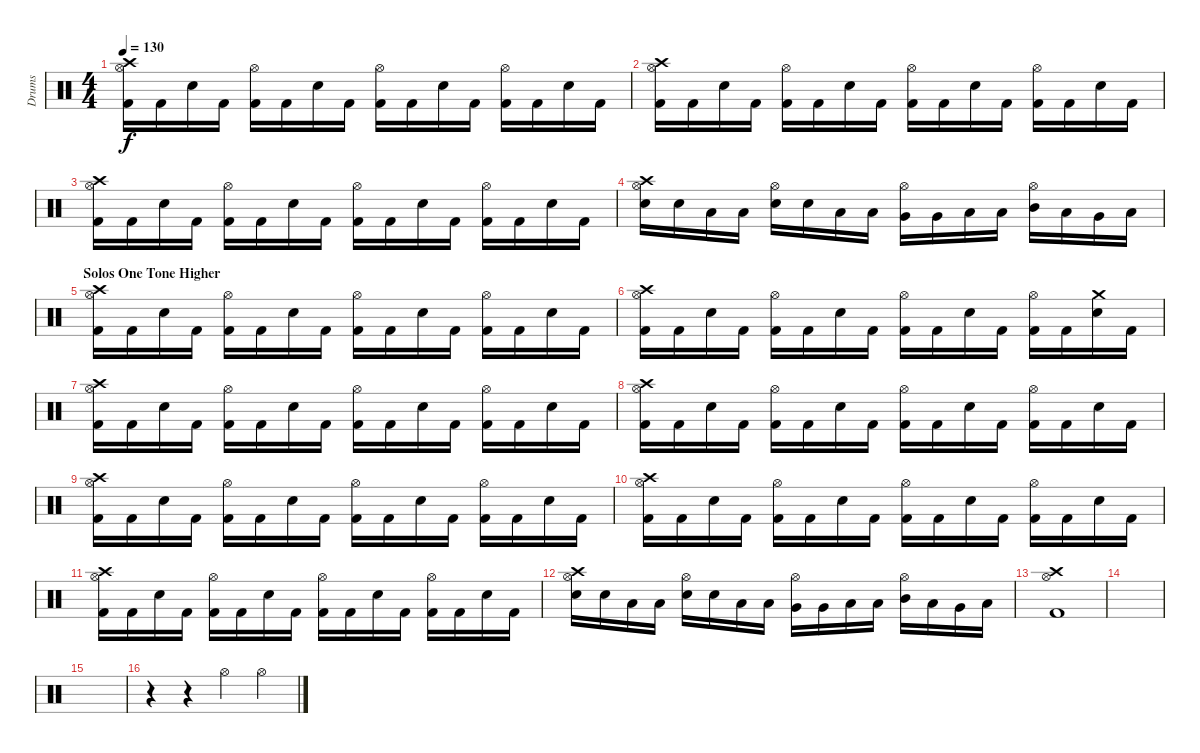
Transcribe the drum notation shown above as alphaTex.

\track ("Drums" "Drums") {instrument percussion}
\staff {score}
\articulation defaults
\ts (4 4)
\tempo 130
\clef neutral
\ks c
("Crash high (hit)" "Hi-Hat (open)" "Kick (hit) 2").16{dy f} "Kick (hit) 2".16 "Electric Snare (hit)".16 "Kick (hit) 2".16 ("Hi-Hat (open)" "Kick (hit) 2").16 "Kick (hit) 2".16 "Electric Snare (hit)".16 "Kick (hit) 2".16 ("Hi-Hat (open)" "Kick (hit) 2").16 "Kick (hit) 2".16 "Electric Snare (hit)".16 "Kick (hit) 2".16 ("Hi-Hat (open)" "Kick (hit) 2").16 "Kick (hit) 2".16 "Electric Snare (hit)".16 "Kick (hit) 2".16 |
("Crash high (hit)" "Hi-Hat (open)" "Kick (hit) 2").16 "Kick (hit) 2".16 "Electric Snare (hit)".16 "Kick (hit) 2".16 ("Hi-Hat (open)" "Kick (hit) 2").16 "Kick (hit) 2".16 "Electric Snare (hit)".16 "Kick (hit) 2".16 ("Hi-Hat (open)" "Kick (hit) 2").16 "Kick (hit) 2".16 "Electric Snare (hit)".16 "Kick (hit) 2".16 ("Hi-Hat (open)" "Kick (hit) 2").16 "Kick (hit) 2".16 "Electric Snare (hit)".16 "Kick (hit) 2".16 |
("Crash high (hit)" "Hi-Hat (open)" "Kick (hit) 2").16 "Kick (hit) 2".16 "Electric Snare (hit)".16 "Kick (hit) 2".16 ("Hi-Hat (open)" "Kick (hit) 2").16 "Kick (hit) 2".16 "Electric Snare (hit)".16 "Kick (hit) 2".16 ("Hi-Hat (open)" "Kick (hit) 2").16 "Kick (hit) 2".16 "Electric Snare (hit)".16 "Kick (hit) 2".16 ("Hi-Hat (open)" "Kick (hit) 2").16 "Kick (hit) 2".16 "Electric Snare (hit)".16 "Kick (hit) 2".16 |
("Crash high (hit)" "Hi-Hat (open)" "Electric Snare (hit)").16 "Electric Snare (hit)".16 "Low Tom (hit)".16 "Low Tom (hit)".16 ("Hi-Hat (open)" "Electric Snare (hit)").16 "Electric Snare (hit)".16 "Low Tom (hit)".16 "Low Tom (hit)".16 ("Hi-Hat (open)" "Very Low Tom (hit)").16 "Very Low Tom (hit)".16 "Low Floor Tom (hit)".16 "Low Floor Tom (hit)".16 ("Hi-Hat (open)" "Mid Tom (hit)").16 "Low Tom (hit)".16 "Very Low Tom (hit)".16 "Low Floor Tom (hit)".16 |
\section ("" "Solos One Tone Higher")
("Crash high (hit)" "Hi-Hat (open)" "Kick (hit) 2").16 "Kick (hit) 2".16 "Electric Snare (hit)".16 "Kick (hit) 2".16 ("Hi-Hat (open)" "Kick (hit) 2").16 "Kick (hit) 2".16 "Electric Snare (hit)".16 "Kick (hit) 2".16 ("Hi-Hat (open)" "Kick (hit) 2").16 "Kick (hit) 2".16 "Electric Snare (hit)".16 "Kick (hit) 2".16 ("Hi-Hat (open)" "Kick (hit) 2").16 "Kick (hit) 2".16 "Electric Snare (hit)".16 "Kick (hit) 2".16 |
("Crash high (hit)" "Hi-Hat (open)" "Kick (hit) 2").16 "Kick (hit) 2".16 "Electric Snare (hit)".16 "Kick (hit) 2".16 ("Hi-Hat (open)" "Kick (hit) 2").16 "Kick (hit) 2".16 "Electric Snare (hit)".16 "Kick (hit) 2".16 ("Hi-Hat (open)" "Kick (hit) 2").16 "Kick (hit) 2".16 "Electric Snare (hit)".16 "Kick (hit) 2".16 ("Hi-Hat (open)" "Kick (hit) 2").16 "Kick (hit) 2".16 ("Crash medium (hit)" "Electric Snare (hit)").16 "Kick (hit) 2".16 |
("Crash high (hit)" "Hi-Hat (open)" "Kick (hit) 2").16 "Kick (hit) 2".16 "Electric Snare (hit)".16 "Kick (hit) 2".16 ("Hi-Hat (open)" "Kick (hit) 2").16 "Kick (hit) 2".16 "Electric Snare (hit)".16 "Kick (hit) 2".16 ("Hi-Hat (open)" "Kick (hit) 2").16 "Kick (hit) 2".16 "Electric Snare (hit)".16 "Kick (hit) 2".16 ("Hi-Hat (open)" "Kick (hit) 2").16 "Kick (hit) 2".16 "Electric Snare (hit)".16 "Kick (hit) 2".16 |
("Crash high (hit)" "Hi-Hat (open)" "Kick (hit) 2").16 "Kick (hit) 2".16 "Electric Snare (hit)".16 "Kick (hit) 2".16 ("Hi-Hat (open)" "Kick (hit) 2").16 "Kick (hit) 2".16 "Electric Snare (hit)".16 "Kick (hit) 2".16 ("Hi-Hat (open)" "Kick (hit) 2").16 "Kick (hit) 2".16 "Electric Snare (hit)".16 "Kick (hit) 2".16 ("Hi-Hat (open)" "Kick (hit) 2").16 "Kick (hit) 2".16 "Electric Snare (hit)".16 "Kick (hit) 2".16 |
("Crash high (hit)" "Hi-Hat (open)" "Kick (hit) 2").16 "Kick (hit) 2".16 "Electric Snare (hit)".16 "Kick (hit) 2".16 ("Hi-Hat (open)" "Kick (hit) 2").16 "Kick (hit) 2".16 "Electric Snare (hit)".16 "Kick (hit) 2".16 ("Hi-Hat (open)" "Kick (hit) 2").16 "Kick (hit) 2".16 "Electric Snare (hit)".16 "Kick (hit) 2".16 ("Hi-Hat (open)" "Kick (hit) 2").16 "Kick (hit) 2".16 "Electric Snare (hit)".16 "Kick (hit) 2".16 |
("Crash high (hit)" "Hi-Hat (open)" "Kick (hit) 2").16 "Kick (hit) 2".16 "Electric Snare (hit)".16 "Kick (hit) 2".16 ("Hi-Hat (open)" "Kick (hit) 2").16 "Kick (hit) 2".16 "Electric Snare (hit)".16 "Kick (hit) 2".16 ("Hi-Hat (open)" "Kick (hit) 2").16 "Kick (hit) 2".16 "Electric Snare (hit)".16 "Kick (hit) 2".16 ("Hi-Hat (open)" "Kick (hit) 2").16 "Kick (hit) 2".16 "Electric Snare (hit)".16 "Kick (hit) 2".16 |
("Crash high (hit)" "Hi-Hat (open)" "Kick (hit) 2").16 "Kick (hit) 2".16 "Electric Snare (hit)".16 "Kick (hit) 2".16 ("Hi-Hat (open)" "Kick (hit) 2").16 "Kick (hit) 2".16 "Electric Snare (hit)".16 "Kick (hit) 2".16 ("Hi-Hat (open)" "Kick (hit) 2").16 "Kick (hit) 2".16 "Electric Snare (hit)".16 "Kick (hit) 2".16 ("Hi-Hat (open)" "Kick (hit) 2").16 "Kick (hit) 2".16 "Electric Snare (hit)".16 "Kick (hit) 2".16 |
("Crash high (hit)" "Hi-Hat (open)" "Electric Snare (hit)").16 "Electric Snare (hit)".16 "Low Tom (hit)".16 "Low Tom (hit)".16 ("Hi-Hat (open)" "Electric Snare (hit)").16 "Electric Snare (hit)".16 "Low Tom (hit)".16 "Low Tom (hit)".16 ("Hi-Hat (open)" "Very Low Tom (hit)").16 "Very Low Tom (hit)".16 "Low Floor Tom (hit)".16 "Low Floor Tom (hit)".16 ("Hi-Hat (open)" "Mid Tom (hit)").16 "Low Tom (hit)".16 "Very Low Tom (hit)".16 "Low Floor Tom (hit)".16 |
("Crash high (hit)" "Hi-Hat (open)" "Kick (hit) 2").1 |
|
|
r.4 r.4 "Hi-Hat (open)".4 "Hi-Hat (open)".4
